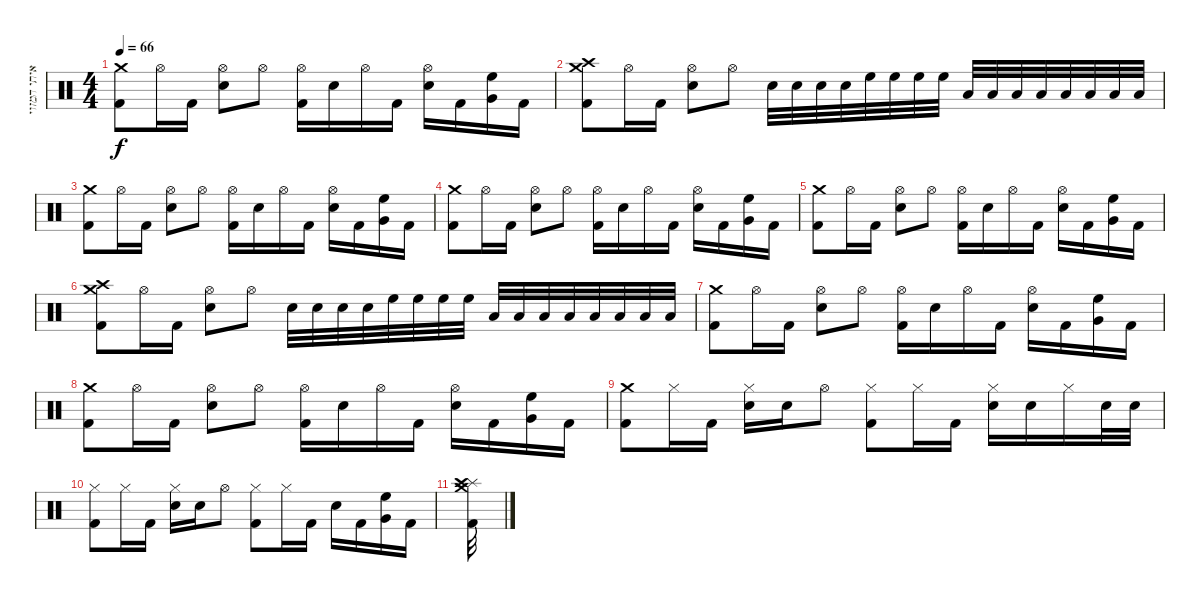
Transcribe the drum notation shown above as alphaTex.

\track ("איתי המזויין" "איתי המזוי") {instrument percussion}
\staff {score}
\articulation defaults
\ts (4 4)
\tempo 66
\clef neutral
\ks c
("Crash medium (hit)" "Kick (hit) 2").8{dy f} "Hi-Hat (open)".16 "Kick (hit) 2".16 ("Hi-Hat (open)" "Electric Snare (hit)").8 "Hi-Hat (open)".8 ("Hi-Hat (open)" "Kick (hit) 2").16 "Electric Snare (hit)".16 "Hi-Hat (open)".16 "Kick (hit) 2".16 ("Hi-Hat (open)" "Electric Snare (hit)").16 "Kick (hit) 2".16 ("Very Low Tom (hit)" "High Floor Tom (hit)").16 "Kick (hit) 2".16 |
("Crash medium (hit)" "Crash high (hit)" "Kick (hit) 2").8 "Hi-Hat (open)".16 "Kick (hit) 2".16 ("Hi-Hat (open)" "Electric Snare (hit)").8 "Hi-Hat (open)".8 "Electric Snare (hit)".32 "Electric Snare (hit)".32 "Electric Snare (hit)".32 "Electric Snare (hit)".32 "High Floor Tom (hit)".32 "High Floor Tom (hit)".32 "High Floor Tom (hit)".32 "High Floor Tom (hit)".32 "Low Tom (hit)".32 "Low Tom (hit)".32 "Low Tom (hit)".32 "Low Tom (hit)".32 "Low Floor Tom (hit)".32 "Low Floor Tom (hit)".32 "Low Floor Tom (hit)".32 "Low Floor Tom (hit)".32 |
("Crash medium (hit)" "Kick (hit) 2").8 "Hi-Hat (open)".16 "Kick (hit) 2".16 ("Hi-Hat (open)" "Electric Snare (hit)").8 "Hi-Hat (open)".8 ("Hi-Hat (open)" "Kick (hit) 2").16 "Electric Snare (hit)".16 "Hi-Hat (open)".16 "Kick (hit) 2".16 ("Hi-Hat (open)" "Electric Snare (hit)").16 "Kick (hit) 2".16 ("Very Low Tom (hit)" "High Floor Tom (hit)").16 "Kick (hit) 2".16 |
("Crash medium (hit)" "Kick (hit) 2").8 "Hi-Hat (open)".16 "Kick (hit) 2".16 ("Hi-Hat (open)" "Electric Snare (hit)").8 "Hi-Hat (open)".8 ("Hi-Hat (open)" "Kick (hit) 2").16 "Electric Snare (hit)".16 "Hi-Hat (open)".16 "Kick (hit) 2".16 ("Hi-Hat (open)" "Electric Snare (hit)").16 "Kick (hit) 2".16 ("Very Low Tom (hit)" "High Floor Tom (hit)").16 "Kick (hit) 2".16 |
("Crash medium (hit)" "Kick (hit) 2").8 "Hi-Hat (open)".16 "Kick (hit) 2".16 ("Hi-Hat (open)" "Electric Snare (hit)").8 "Hi-Hat (open)".8 ("Hi-Hat (open)" "Kick (hit) 2").16 "Electric Snare (hit)".16 "Hi-Hat (open)".16 "Kick (hit) 2".16 ("Hi-Hat (open)" "Electric Snare (hit)").16 "Kick (hit) 2".16 ("Very Low Tom (hit)" "High Floor Tom (hit)").16 "Kick (hit) 2".16 |
("Crash medium (hit)" "Crash high (hit)" "Kick (hit) 2").8 "Hi-Hat (open)".16 "Kick (hit) 2".16 ("Hi-Hat (open)" "Electric Snare (hit)").8 "Hi-Hat (open)".8 "Electric Snare (hit)".32 "Electric Snare (hit)".32 "Electric Snare (hit)".32 "Electric Snare (hit)".32 "High Floor Tom (hit)".32 "High Floor Tom (hit)".32 "High Floor Tom (hit)".32 "High Floor Tom (hit)".32 "Low Tom (hit)".32 "Low Tom (hit)".32 "Low Tom (hit)".32 "Low Tom (hit)".32 "Low Floor Tom (hit)".32 "Low Floor Tom (hit)".32 "Low Floor Tom (hit)".32 "Low Floor Tom (hit)".32 |
("Crash medium (hit)" "Kick (hit) 2").8 "Hi-Hat (open)".16 "Kick (hit) 2".16 ("Hi-Hat (open)" "Electric Snare (hit)").8 "Hi-Hat (open)".8 ("Hi-Hat (open)" "Kick (hit) 2").16 "Electric Snare (hit)".16 "Hi-Hat (open)".16 "Kick (hit) 2".16 ("Hi-Hat (open)" "Electric Snare (hit)").16 "Kick (hit) 2".16 ("Very Low Tom (hit)" "High Floor Tom (hit)").16 "Kick (hit) 2".16 |
("Crash medium (hit)" "Kick (hit) 2").8 "Hi-Hat (open)".16 "Kick (hit) 2".16 ("Hi-Hat (open)" "Electric Snare (hit)").8 "Hi-Hat (open)".8 ("Hi-Hat (open)" "Kick (hit) 2").16 "Electric Snare (hit)".16 "Hi-Hat (open)".16 "Kick (hit) 2".16 ("Hi-Hat (open)" "Electric Snare (hit)").16 "Kick (hit) 2".16 ("Very Low Tom (hit)" "High Floor Tom (hit)").16 "Kick (hit) 2".16 |
("Crash medium (hit)" "Kick (hit) 2").8 "Hi-Hat (closed)".16 "Kick (hit) 2".16 ("Hi-Hat (closed)" "Electric Snare (hit)").16 "Electric Snare (hit)".16 "Hi-Hat (open)".8 ("Hi-Hat (closed)" "Kick (hit) 2").8 "Hi-Hat (closed)".16 "Kick (hit) 2".16 ("Hi-Hat (closed)" "Electric Snare (hit)").16 "Electric Snare (hit)".16 "Hi-Hat (closed)".16 "Electric Snare (hit)".32 "Electric Snare (hit)".32 |
("Hi-Hat (closed)" "Kick (hit) 2").8 "Hi-Hat (closed)".16 "Kick (hit) 2".16 ("Hi-Hat (closed)" "Electric Snare (hit)").16 "Electric Snare (hit)".16 "Hi-Hat (open)".8 ("Hi-Hat (closed)" "Kick (hit) 2").8 "Hi-Hat (closed)".16 "Kick (hit) 2".16 "Electric Snare (hit)".16 "Kick (hit) 2".16 ("High Floor Tom (hit)" "Very Low Tom (hit)").16 "Kick (hit) 2".16 |
("Crash medium (hit)" "Splash (hit)" "Crash high (hit)" "Kick (hit) 2").32
